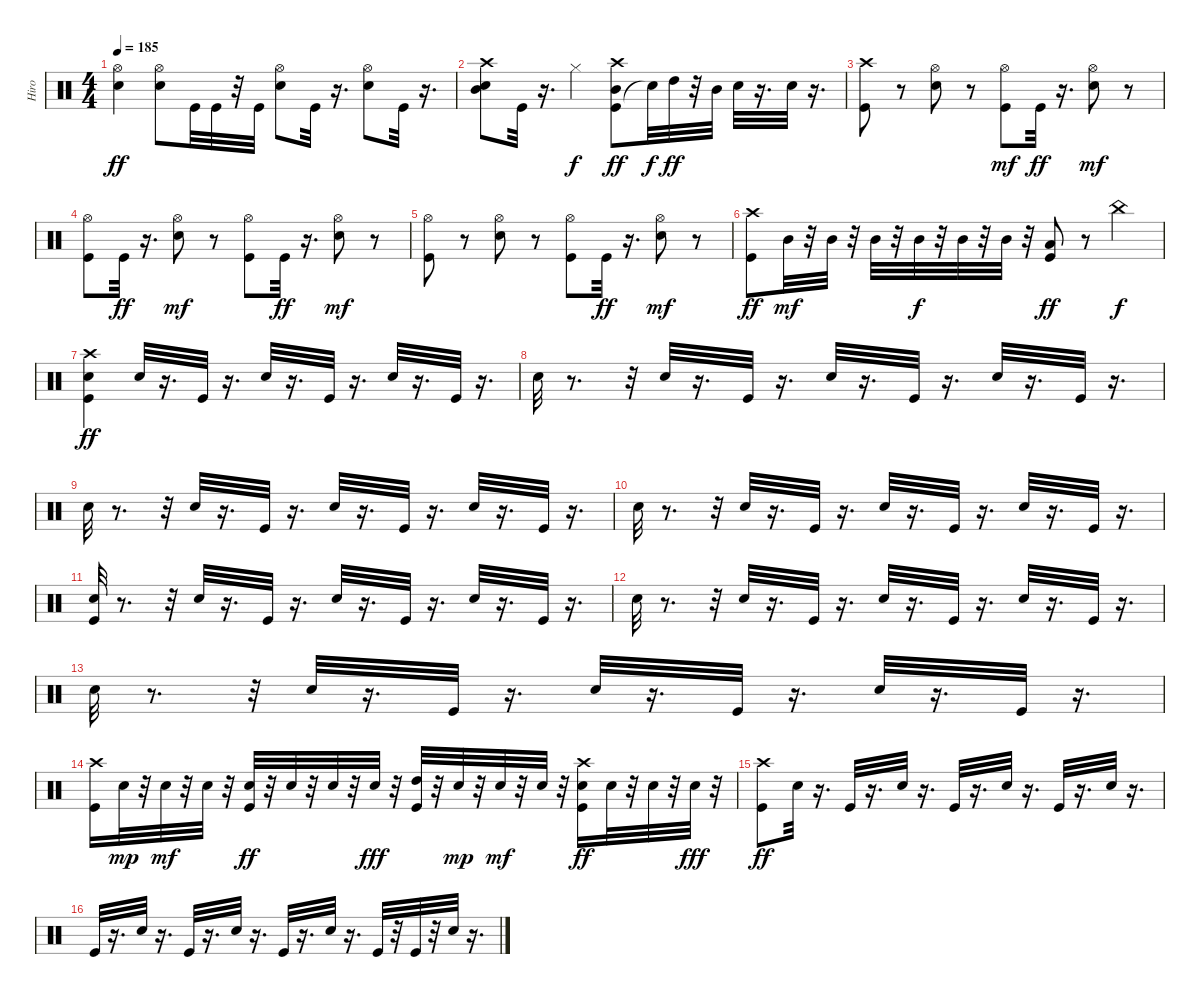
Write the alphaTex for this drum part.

\track ("Hiro" "Hiro") {instrument percussion}
\staff {score}
\articulation defaults
\ts (4 4)
\tempo 185
\clef neutral
\ks c
("Electric Snare (hit)" "Hi-Hat (open)").4{dy ff} ("Electric Snare (hit)" "Hi-Hat (open)").8 "Kick (hit)".32 "Kick (hit)".32 r.32 "Kick (hit)".32 ("Electric Snare (hit)" "Hi-Hat (open)").8 "Kick (hit)".32 r.16{d} ("Electric Snare (hit)" "Hi-Hat (open)").8 "Kick (hit)".32 r.16{d} |
("Mid Tom (hit)" "Electric Snare (hit)" "Crash high (hit)").8 "Kick (hit)".32 r.16{d} "Hi-Hat (closed)".4{dy f} ("Kick (hit)" "Mid Tom (hit)" "Crash high (hit)").8{dy ff} "Snare (hit)"{t}.32{dy f} "High Tom (hit)".32{dy ff} r.32 "Mid Tom (hit)".32 "Snare (hit) 2".32 r.16{d} "Snare (hit) 2".32 r.16{d} |
("Crash high (hit)" "Kick (hit)").8 r.8 ("Hi-Hat (open)" "Electric Snare (hit)").8 r.8 ("Kick (hit)" "Hi-Hat (open)").8{dy mf} "Kick (hit)".32{dy ff} r.16{d} ("Electric Snare (hit)" "Hi-Hat (open)").8{dy mf} r.8 |
("Kick (hit)" "Hi-Hat (open)").8 "Kick (hit)".32{dy ff} r.16{d} ("Electric Snare (hit)" "Hi-Hat (open)").8{dy mf} r.8 ("Kick (hit)" "Hi-Hat (open)").8 "Kick (hit)".32{dy ff} r.16{d} ("Electric Snare (hit)" "Hi-Hat (open)").8{dy mf} r.8 |
("Kick (hit)" "Hi-Hat (open)").8 r.8 ("Electric Snare (hit)" "Hi-Hat (open)").8 r.8 ("Kick (hit)" "Hi-Hat (open)").8 "Kick (hit)".32{dy ff} r.16{d} ("Electric Snare (hit)" "Hi-Hat (open)").8{dy mf} r.8 |
("Kick (hit)" "Crash high (hit)").8{dy ff} "Mid Tom (hit)".32{dy mf} r.32 "Mid Tom (hit)".32 r.32 "Mid Tom (hit)".32 r.32 "Mid Tom (hit)".32{dy f} r.32 "Mid Tom (hit)".32 r.32 "Mid Tom (hit)".32 r.32 ("Low Tom (hit)" "Kick (hit)").8{dy ff} r.8 "China (hit)".4{dy f} |
("Crash high (hit)" "Electric Snare (hit)" "Kick (hit)").4{dy ff} "Electric Snare (hit)".32 r.16{d} "Kick (hit)".32 r.16{d} "Electric Snare (hit)".32 r.16{d} "Kick (hit)".32 r.16{d} "Electric Snare (hit)".32 r.16{d} "Kick (hit)".32 r.16{d} |
"Electric Snare (hit)".32 r.8{d} r.32 "Electric Snare (hit)".32 r.16{d} "Kick (hit)".32 r.16{d} "Electric Snare (hit)".32 r.16{d} "Kick (hit)".32 r.16{d} "Electric Snare (hit)".32 r.16{d} "Kick (hit)".32 r.16{d} |
"Electric Snare (hit)".32 r.8{d} r.32 "Electric Snare (hit)".32 r.16{d} "Kick (hit)".32 r.16{d} "Electric Snare (hit)".32 r.16{d} "Kick (hit)".32 r.16{d} "Electric Snare (hit)".32 r.16{d} "Kick (hit)".32 r.16{d} |
"Electric Snare (hit)".32 r.8{d} r.32 "Electric Snare (hit)".32 r.16{d} "Kick (hit)".32 r.16{d} "Electric Snare (hit)".32 r.16{d} "Kick (hit)".32 r.16{d} "Electric Snare (hit)".32 r.16{d} "Kick (hit)".32 r.16{d} |
("Electric Snare (hit)" "Kick (hit)").32 r.8{d} r.32 "Electric Snare (hit)".32 r.16{d} "Kick (hit)".32 r.16{d} "Electric Snare (hit)".32 r.16{d} "Kick (hit)".32 r.16{d} "Electric Snare (hit)".32 r.16{d} "Kick (hit)".32 r.16{d} |
"Electric Snare (hit)".32 r.8{d} r.32 "Electric Snare (hit)".32 r.16{d} "Kick (hit)".32 r.16{d} "Electric Snare (hit)".32 r.16{d} "Kick (hit)".32 r.16{d} "Electric Snare (hit)".32 r.16{d} "Kick (hit)".32 r.16{d} |
"Electric Snare (hit)".32 r.8{d} r.32 "Electric Snare (hit)".32 r.16{d} "Kick (hit)".32 r.16{d} "Electric Snare (hit)".32 r.16{d} "Kick (hit)".32 r.16{d} "Electric Snare (hit)".32 r.16{d} "Kick (hit)".32 r.16{d} |
("Crash high (hit)" "Kick (hit)").16 "Electric Snare (hit)".32{dy mp} r.32 "Electric Snare (hit)".32{dy mf} r.32 "Electric Snare (hit)".32 r.32 ("Electric Snare (hit)" "Kick (hit)").32{dy ff} r.32 "Electric Snare (hit)".32 r.32 "Electric Snare (hit)".32 r.32 "Electric Snare (hit)".32{dy fff} r.32 ("Kick (hit)" "High Tom (hit)").32 r.32 "Electric Snare (hit)".32{dy mp} r.32 "Electric Snare (hit)".32{dy mf} r.32 "Electric Snare (hit)".32 r.32 ("Crash high (hit)" "Electric Snare (hit)" "Kick (hit)").16{dy ff} "Electric Snare (hit)".32 r.32 "Electric Snare (hit)".32 r.32 "Electric Snare (hit)".32{dy fff} r.32 |
("Crash high (hit)" "Kick (hit)").8{dy ff} "Electric Snare (hit)".32 r.16{d} "Kick (hit)".32 r.16{d} "Electric Snare (hit)".32 r.16{d} "Kick (hit)".32 r.16{d} "Electric Snare (hit)".32 r.16{d} "Kick (hit)".32 r.16{d} "Electric Snare (hit)".32 r.16{d} |
"Kick (hit)".32 r.16{d} "Electric Snare (hit)".32 r.16{d} "Kick (hit)".32 r.16{d} "Electric Snare (hit)".32 r.16{d} "Kick (hit)".32 r.16{d} "Electric Snare (hit)".32 r.16{d} "Kick (hit)".32 r.32 "Kick (hit)".32 r.32 "Electric Snare (hit)".32 r.16{d}
